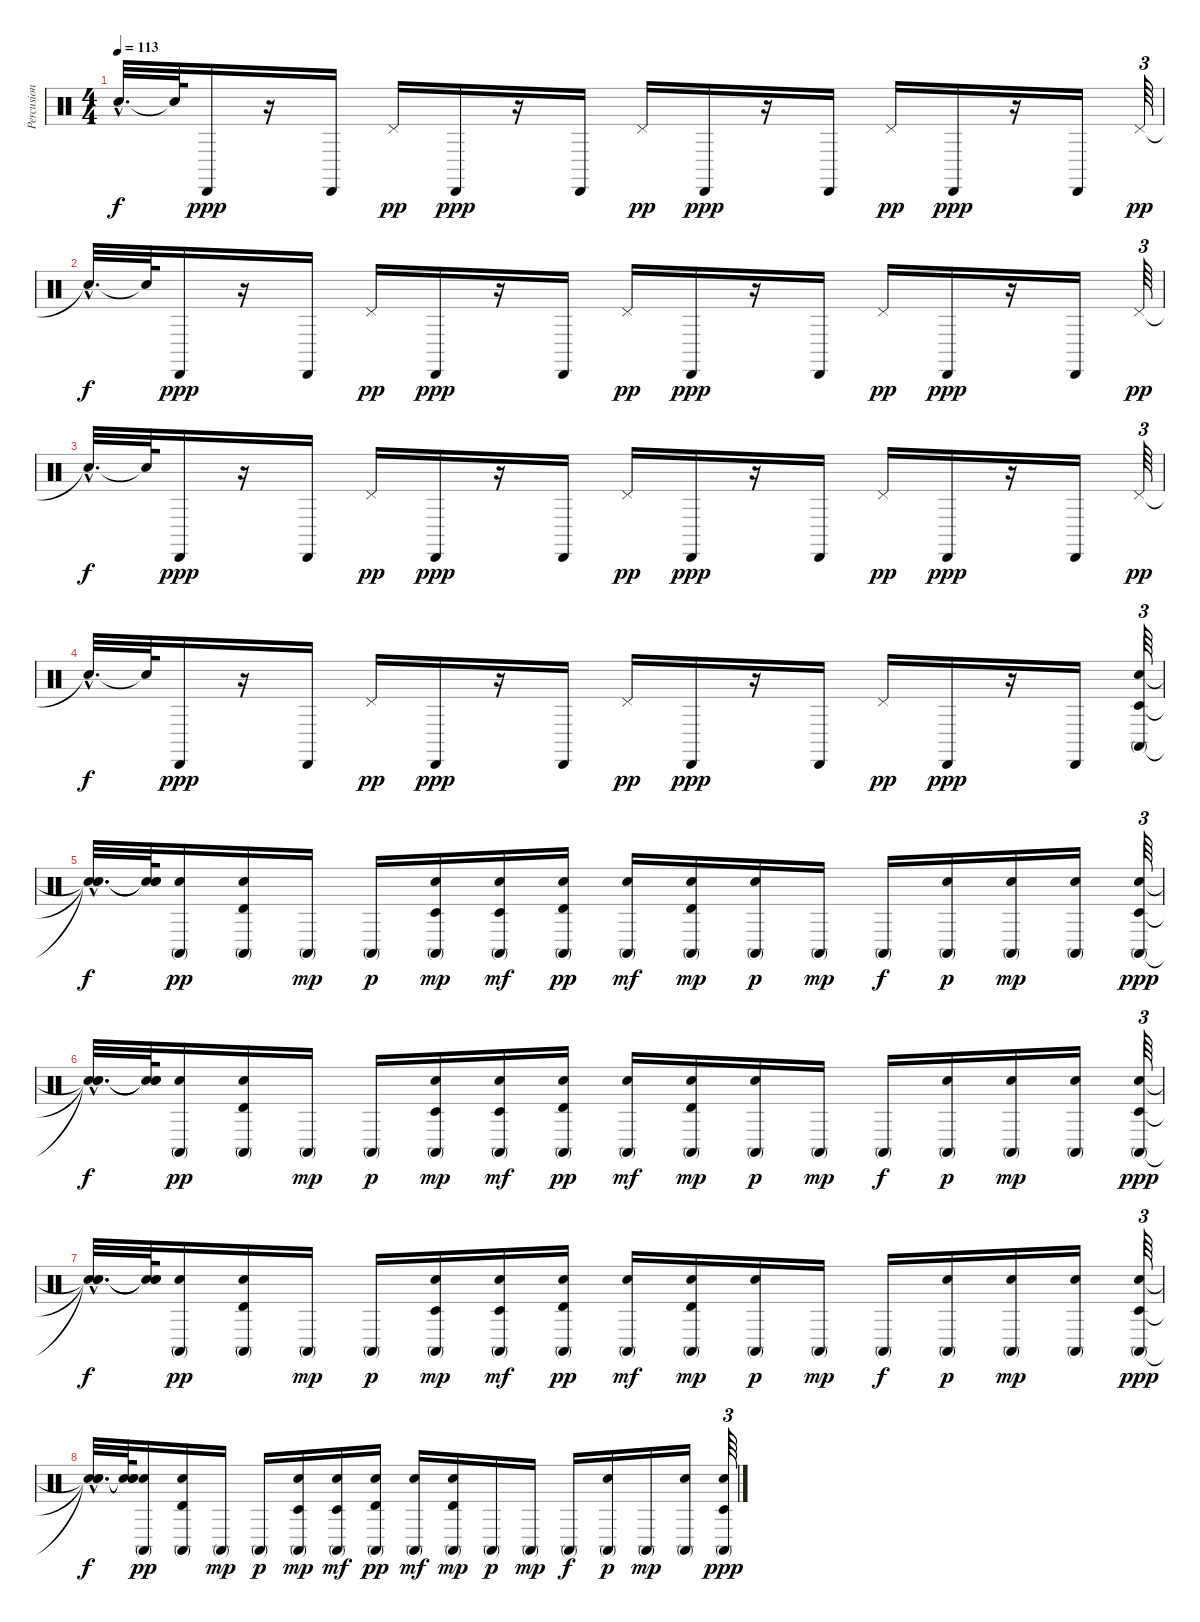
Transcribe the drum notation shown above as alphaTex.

\track ("Percusion" "Percusion") {instrument percussion}
\staff {score}
\articulation defaults
\ts (4 4)
\tempo 113
\clef neutral
\ks c "Snare (hit)"{hac t}.32{d dy f} "Snare (hit)"{t}.64 "Cabasa (hit)".16{dy ppp}
r.16 "Cabasa (hit)".16 "Pedal Hi-Hat (hit)".16{dy pp} "Cabasa (hit)".16{dy ppp} r.16 "Cabasa (hit)".16 "Pedal Hi-Hat (hit)".16{dy pp} "Cabasa (hit)".16{dy ppp} r.16 "Cabasa (hit)".16 "Pedal Hi-Hat (hit)".16{dy pp} "Cabasa (hit)".16{dy ppp} r.16 "Cabasa (hit)".16 "Pedal Hi-Hat (hit)".64{tu (3 2) dy pp} |
"Snare (hit)"{hac t}.32{d dy f} "Snare (hit)"{t}.64 "Cabasa (hit)".16{dy ppp} r.16 "Cabasa (hit)".16 "Pedal Hi-Hat (hit)".16{dy pp} "Cabasa (hit)".16{dy ppp} r.16 "Cabasa (hit)".16 "Pedal Hi-Hat (hit)".16{dy pp} "Cabasa (hit)".16{dy ppp} r.16 "Cabasa (hit)".16 "Pedal Hi-Hat (hit)".16{dy pp} "Cabasa (hit)".16{dy ppp} r.16 "Cabasa (hit)".16 "Pedal Hi-Hat (hit)".64{tu (3 2) dy pp} |
"Snare (hit)"{hac t}.32{d dy f} "Snare (hit)"{t}.64 "Cabasa (hit)".16{dy ppp} r.16 "Cabasa (hit)".16 "Pedal Hi-Hat (hit)".16{dy pp} "Cabasa (hit)".16{dy ppp} r.16 "Cabasa (hit)".16 "Pedal Hi-Hat (hit)".16{dy pp} "Cabasa (hit)".16{dy ppp} r.16 "Cabasa (hit)".16 "Pedal Hi-Hat (hit)".16{dy pp} "Cabasa (hit)".16{dy ppp} r.16 "Cabasa (hit)".16 "Pedal Hi-Hat (hit)".64{tu (3 2) dy pp} |
"Snare (hit)"{hac t}.32{d dy f} "Snare (hit)"{t}.64 "Cabasa (hit)".16{dy ppp} r.16 "Cabasa (hit)".16 "Pedal Hi-Hat (hit)".16{dy pp} "Cabasa (hit)".16{dy ppp} r.16 "Cabasa (hit)".16 "Pedal Hi-Hat (hit)".16{dy pp} "Cabasa (hit)".16{dy ppp} r.16 "Cabasa (hit)".16 "Pedal Hi-Hat (hit)".16{dy pp} "Cabasa (hit)".16{dy ppp} r.16 "Cabasa (hit)".16 ("Electric Snare (hit)" "Timbale low (hit)" "Conga high (mute)").64{tu (3 2)} |
("Snare (hit)"{hac t} "Snare (hit)"{hac t} "Snare (hit)"{hac t}).32{d dy f} ("Snare (hit)"{t} "Snare (hit)"{t} "Snare (hit)"{t}).64 ("Electric Snare (hit)" "Conga high (mute)").16{dy pp} ("Electric Snare (hit)" "Timbale high (hit)" "Conga high (mute)").16 "Conga high (mute)".16{dy mp} "Conga high (mute)".16{dy p} ("Electric Snare (hit)" "Timbale low (hit)" "Conga high (mute)").16{dy mp} ("Electric Snare (hit)" "Timbale low (hit)" "Conga high (mute)").16{dy mf} ("Electric Snare (hit)" "Timbale high (hit)" "Conga high (mute)").16{dy pp} ("Electric Snare (hit)" "Conga high (mute)").16{dy mf} ("Electric Snare (hit)" "Timbale high (hit)" "Conga high (mute)").16{dy mp} ("Electric Snare (hit)" "Conga high (mute)").16{dy p} "Conga high (mute)".16{dy mp} "Conga high (mute)".16{dy f} ("Electric Snare (hit)" "Conga high (mute)").16{dy p} ("Electric Snare (hit)" "Conga high (mute)").16{dy mp} ("Electric Snare (hit)" "Conga high (mute)").16 ("Electric Snare (hit)" "Timbale low (hit)" "Conga high (mute)").64{tu (3 2) dy ppp} |
("Snare (hit)"{hac t} "Snare (hit)"{hac t} "Snare (hit)"{hac t}).32{d dy f} ("Snare (hit)"{t} "Snare (hit)"{t} "Snare (hit)"{t}).64 ("Electric Snare (hit)" "Conga high (mute)").16{dy pp} ("Electric Snare (hit)" "Timbale high (hit)" "Conga high (mute)").16 "Conga high (mute)".16{dy mp} "Conga high (mute)".16{dy p} ("Electric Snare (hit)" "Timbale low (hit)" "Conga high (mute)").16{dy mp} ("Electric Snare (hit)" "Timbale low (hit)" "Conga high (mute)").16{dy mf} ("Electric Snare (hit)" "Timbale high (hit)" "Conga high (mute)").16{dy pp} ("Electric Snare (hit)" "Conga high (mute)").16{dy mf} ("Electric Snare (hit)" "Timbale high (hit)" "Conga high (mute)").16{dy mp} ("Electric Snare (hit)" "Conga high (mute)").16{dy p} "Conga high (mute)".16{dy mp} "Conga high (mute)".16{dy f} ("Electric Snare (hit)" "Conga high (mute)").16{dy p} ("Electric Snare (hit)" "Conga high (mute)").16{dy mp} ("Electric Snare (hit)" "Conga high (mute)").16 ("Electric Snare (hit)" "Timbale low (hit)" "Conga high (mute)").64{tu (3 2) dy ppp} |
("Snare (hit)"{hac t} "Snare (hit)"{hac t} "Snare (hit)"{hac t}).32{d dy f} ("Snare (hit)"{t} "Snare (hit)"{t} "Snare (hit)"{t}).64 ("Electric Snare (hit)" "Conga high (mute)").16{dy pp} ("Electric Snare (hit)" "Timbale high (hit)" "Conga high (mute)").16 "Conga high (mute)".16{dy mp} "Conga high (mute)".16{dy p} ("Electric Snare (hit)" "Timbale low (hit)" "Conga high (mute)").16{dy mp} ("Electric Snare (hit)" "Timbale low (hit)" "Conga high (mute)").16{dy mf} ("Electric Snare (hit)" "Timbale high (hit)" "Conga high (mute)").16{dy pp} ("Electric Snare (hit)" "Conga high (mute)").16{dy mf} ("Electric Snare (hit)" "Timbale high (hit)" "Conga high (mute)").16{dy mp} ("Electric Snare (hit)" "Conga high (mute)").16{dy p} "Conga high (mute)".16{dy mp} "Conga high (mute)".16{dy f} ("Electric Snare (hit)" "Conga high (mute)").16{dy p} ("Electric Snare (hit)" "Conga high (mute)").16{dy mp} ("Electric Snare (hit)" "Conga high (mute)").16 ("Electric Snare (hit)" "Timbale low (hit)" "Conga high (mute)").64{tu (3 2) dy ppp} |
("Snare (hit)"{hac t} "Snare (hit)"{hac t} "Snare (hit)"{hac t}).32{d dy f} ("Snare (hit)"{t} "Snare (hit)"{t} "Snare (hit)"{t}).64 ("Electric Snare (hit)" "Conga high (mute)").16{dy pp} ("Electric Snare (hit)" "Timbale high (hit)" "Conga high (mute)").16 "Conga high (mute)".16{dy mp} "Conga high (mute)".16{dy p} ("Electric Snare (hit)" "Timbale low (hit)" "Conga high (mute)").16{dy mp} ("Electric Snare (hit)" "Timbale low (hit)" "Conga high (mute)").16{dy mf} ("Electric Snare (hit)" "Timbale high (hit)" "Conga high (mute)").16{dy pp} ("Electric Snare (hit)" "Conga high (mute)").16{dy mf} ("Electric Snare (hit)" "Timbale high (hit)" "Conga high (mute)").16{dy mp} "Conga high (mute)".16{dy p} "Conga high (mute)".16{dy mp} "Conga high (mute)".16{dy f} ("Electric Snare (hit)" "Conga high (mute)").16{dy p} "Conga high (mute)".16{dy mp} ("Electric Snare (hit)" "Conga high (mute)").16 ("Electric Snare (hit)" "Timbale low (hit)" "Conga high (mute)").64{tu (3 2) dy ppp}
